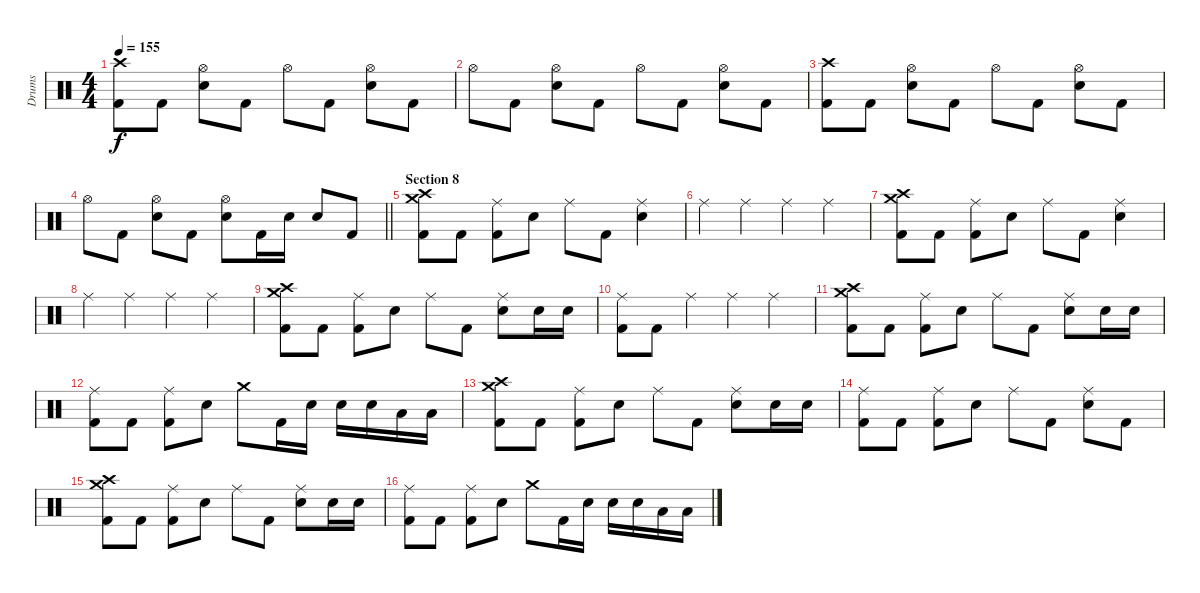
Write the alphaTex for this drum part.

\track ("Drums" "Drums") {instrument percussion}
\staff {score}
\articulation defaults
\ts (4 4)
\tempo 155
\clef neutral
\ks c
("Crash high (hit)" "Kick (hit) 2").8{dy f} "Kick (hit) 2".8 ("Hi-Hat (open)" "Electric Snare (hit)").8 "Kick (hit) 2".8 "Hi-Hat (open)".8 "Kick (hit) 2".8 ("Hi-Hat (open)" "Electric Snare (hit)").8 "Kick (hit) 2".8 |
"Hi-Hat (open)".8 "Kick (hit) 2".8 ("Hi-Hat (open)" "Electric Snare (hit)").8 "Kick (hit) 2".8 "Hi-Hat (open)".8 "Kick (hit) 2".8 ("Hi-Hat (open)" "Electric Snare (hit)").8 "Kick (hit) 2".8 |
("Crash high (hit)" "Kick (hit) 2").8 "Kick (hit) 2".8 ("Hi-Hat (open)" "Electric Snare (hit)").8 "Kick (hit) 2".8 "Hi-Hat (open)".8 "Kick (hit) 2".8 ("Hi-Hat (open)" "Electric Snare (hit)").8 "Kick (hit) 2".8 |
\barLineRight lightlight "Hi-Hat (open)".8 "Kick (hit) 2".8
("Hi-Hat (open)" "Electric Snare (hit)").8 "Kick (hit) 2".8 ("Hi-Hat (open)" "Electric Snare (hit)").8 "Kick (hit) 2".16 "Electric Snare (hit)".16 "Electric Snare (hit)".8 "Kick (hit) 2".8 |
\section ("" "Section 8")
("Crash high (hit)" "Crash medium (hit)" "Kick (hit) 2").8 "Kick (hit) 2".8 ("Ride (middle)" "Kick (hit) 2").8 "Electric Snare (hit)".8 "Ride (middle)".8 "Kick (hit) 2".8 ("Ride (middle)" "Electric Snare (hit)").4 |
"Ride (middle)".4 "Ride (middle)".4 "Ride (middle)".4 "Ride (middle)".4 |
("Crash high (hit)" "Crash medium (hit)" "Kick (hit) 2").8 "Kick (hit) 2".8 ("Ride (middle)" "Kick (hit) 2").8 "Electric Snare (hit)".8 "Ride (middle)".8 "Kick (hit) 2".8 ("Ride (middle)" "Electric Snare (hit)").4 |
"Ride (middle)".4 "Ride (middle)".4 "Ride (middle)".4 "Ride (middle)".4 |
("Crash high (hit)" "Crash medium (hit)" "Kick (hit) 2").8 "Kick (hit) 2".8 ("Ride (middle)" "Kick (hit) 2").8 "Electric Snare (hit)".8 "Ride (middle)".8 "Kick (hit) 2".8 ("Ride (middle)" "Electric Snare (hit)").8 "Electric Snare (hit)".16 "Electric Snare (hit)".16 |
("Ride (middle)" "Kick (hit) 2").8 "Kick (hit) 2".8 "Ride (middle)".4 "Ride (middle)".4 "Ride (middle)".4 |
("Crash high (hit)" "Crash medium (hit)" "Kick (hit) 2").8 "Kick (hit) 2".8 ("Ride (middle)" "Kick (hit) 2").8 "Electric Snare (hit)".8 "Ride (middle)".8 "Kick (hit) 2".8 ("Ride (middle)" "Electric Snare (hit)").8 "Electric Snare (hit)".16 "Electric Snare (hit)".16 |
("Ride (middle)" "Kick (hit) 2").8 "Kick (hit) 2".8 ("Ride (middle)" "Kick (hit) 2").8 "Electric Snare (hit)".8 "Crash medium (hit)".8 "Kick (hit) 2".16 "Electric Snare (hit)".16 "Electric Snare (hit)".16 "Electric Snare (hit)".16 "Low Tom (hit)".16 "Low Tom (hit)".16 |
("Crash high (hit)" "Crash medium (hit)" "Kick (hit) 2").8 "Kick (hit) 2".8 ("Ride (middle)" "Kick (hit) 2").8 "Electric Snare (hit)".8 "Ride (middle)".8 "Kick (hit) 2".8 ("Ride (middle)" "Electric Snare (hit)").8 "Electric Snare (hit)".16 "Electric Snare (hit)".16 |
("Ride (middle)" "Kick (hit) 2").8 "Kick (hit) 2".8 ("Ride (middle)" "Kick (hit) 2").8 "Electric Snare (hit)".8 "Ride (middle)".8 "Kick (hit) 2".8 ("Ride (middle)" "Electric Snare (hit)").8 "Kick (hit) 2".8 |
("Crash high (hit)" "Crash medium (hit)" "Kick (hit) 2").8 "Kick (hit) 2".8 ("Ride (middle)" "Kick (hit) 2").8 "Electric Snare (hit)".8 "Ride (middle)".8 "Kick (hit) 2".8 ("Ride (middle)" "Electric Snare (hit)").8 "Electric Snare (hit)".16 "Electric Snare (hit)".16 |
("Ride (middle)" "Kick (hit) 2").8 "Kick (hit) 2".8 ("Ride (middle)" "Kick (hit) 2").8 "Electric Snare (hit)".8 "Crash medium (hit)".8 "Kick (hit) 2".16 "Electric Snare (hit)".16 "Electric Snare (hit)".16 "Electric Snare (hit)".16 "Low Tom (hit)".16 "Low Tom (hit)".16
